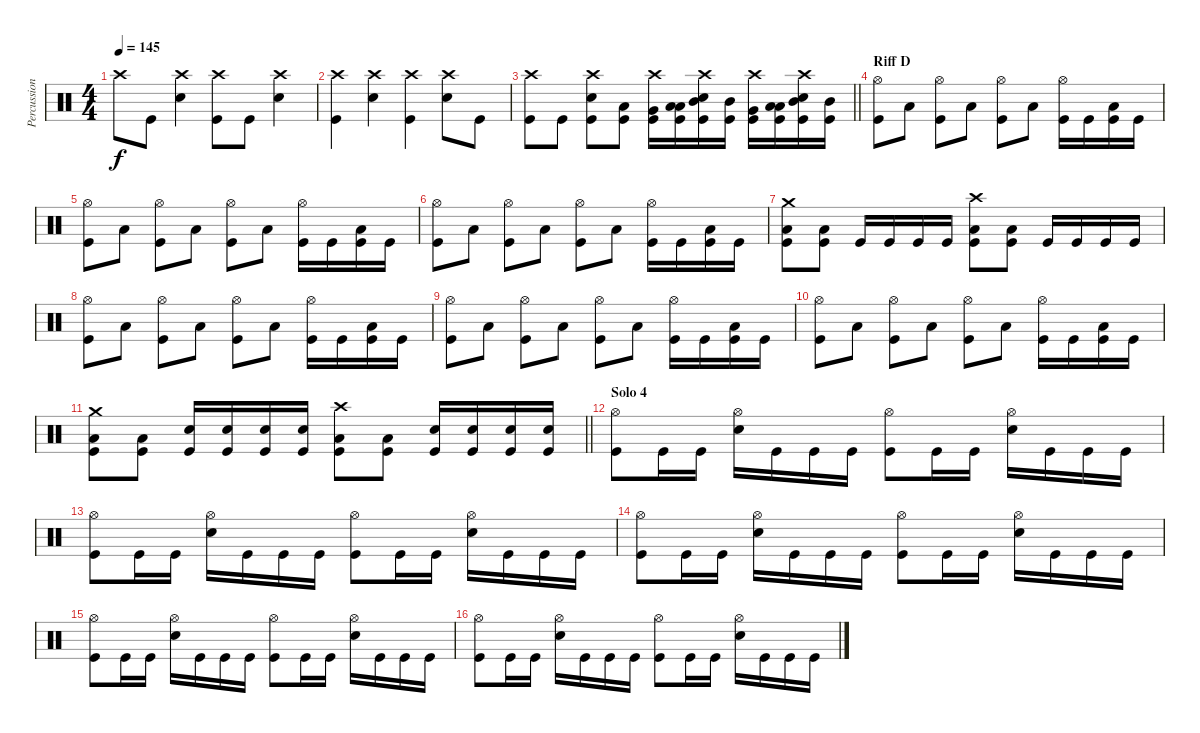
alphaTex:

\track ("Percussion" "Percussion") {instrument percussion}
\staff {score}
\articulation defaults
\ts (4 4)
\tempo 145
\clef neutral
\ks c "Crash high (hit)".8{dy f} "Kick (hit)".8
("Crash high (hit)" "Snare (hit) 2").4 ("Crash high (hit)" "Kick (hit)").8 "Kick (hit)".8 ("Crash high (hit)" "Snare (hit) 2").4 |
("Crash high (hit)" "Kick (hit)").4 ("Crash high (hit)" "Snare (hit) 2").4 ("Crash high (hit)" "Kick (hit)").4 ("Crash high (hit)" "Snare (hit) 2").8 "Kick (hit)".8 |
\barLineRight lightlight
("Crash high (hit)" "Kick (hit)").8 "Kick (hit)".8 ("Crash high (hit)" "Snare (hit) 2" "Kick (hit)").8 ("Low Floor Tom (hit)" "Kick (hit)").8 ("Crash high (hit)" "Very Low Tom (hit)" "Kick (hit)").16 ("Low Tom (hit)" "Low Tom (hit)" "Kick (hit)").16 ("Crash high (hit)" "Mid Tom (hit)" "Snare (hit) 2" "Kick (hit)").16 ("Mid Tom (hit)" "Kick (hit)").16 ("Crash high (hit)" "Very Low Tom (hit)" "Kick (hit)").16 ("Low Tom (hit)" "Low Tom (hit)" "Kick (hit)").16 ("Crash high (hit)" "Mid Tom (hit)" "Snare (hit) 2" "Kick (hit)").16 ("Mid Tom (hit)" "Kick (hit)").16 |
\section ("" "Riff D")
("Hi-Hat (open)" "Kick (hit)").8 "Low Floor Tom (hit)".8 ("Hi-Hat (open)" "Kick (hit)").8 "Low Floor Tom (hit)".8 ("Hi-Hat (open)" "Kick (hit)").8 "Low Floor Tom (hit)".8 ("Hi-Hat (open)" "Kick (hit)").16 "Kick (hit)".16 ("Low Floor Tom (hit)" "Kick (hit)").16 "Kick (hit)".16 |
("Hi-Hat (open)" "Kick (hit)").8 "Low Floor Tom (hit)".8 ("Hi-Hat (open)" "Kick (hit)").8 "Low Floor Tom (hit)".8 ("Hi-Hat (open)" "Kick (hit)").8 "Low Floor Tom (hit)".8 ("Hi-Hat (open)" "Kick (hit)").16 "Kick (hit)".16 ("Low Floor Tom (hit)" "Kick (hit)").16 "Kick (hit)".16 |
("Hi-Hat (open)" "Kick (hit)").8 "Low Floor Tom (hit)".8 ("Hi-Hat (open)" "Kick (hit)").8 "Low Floor Tom (hit)".8 ("Hi-Hat (open)" "Kick (hit)").8 "Low Floor Tom (hit)".8 ("Hi-Hat (open)" "Kick (hit)").16 "Kick (hit)".16 ("Low Floor Tom (hit)" "Kick (hit)").16 "Kick (hit)".16 |
("Crash medium (hit)" "Low Floor Tom (hit)" "Kick (hit)").8 ("Low Floor Tom (hit)" "Kick (hit)").8 "Kick (hit)".16 "Kick (hit)".16 "Kick (hit)".16 "Kick (hit)".16 ("Crash high (hit)" "Low Floor Tom (hit)" "Kick (hit)").8 ("Low Floor Tom (hit)" "Kick (hit)").8 "Kick (hit)".16 "Kick (hit)".16 "Kick (hit)".16 "Kick (hit)".16 |
("Hi-Hat (open)" "Kick (hit)").8 "Low Floor Tom (hit)".8 ("Hi-Hat (open)" "Kick (hit)").8 "Low Floor Tom (hit)".8 ("Hi-Hat (open)" "Kick (hit)").8 "Low Floor Tom (hit)".8 ("Hi-Hat (open)" "Kick (hit)").16 "Kick (hit)".16 ("Low Floor Tom (hit)" "Kick (hit)").16 "Kick (hit)".16 |
("Hi-Hat (open)" "Kick (hit)").8 "Low Floor Tom (hit)".8 ("Hi-Hat (open)" "Kick (hit)").8 "Low Floor Tom (hit)".8 ("Hi-Hat (open)" "Kick (hit)").8 "Low Floor Tom (hit)".8 ("Hi-Hat (open)" "Kick (hit)").16 "Kick (hit)".16 ("Low Floor Tom (hit)" "Kick (hit)").16 "Kick (hit)".16 |
("Hi-Hat (open)" "Kick (hit)").8 "Low Floor Tom (hit)".8 ("Hi-Hat (open)" "Kick (hit)").8 "Low Floor Tom (hit)".8 ("Hi-Hat (open)" "Kick (hit)").8 "Low Floor Tom (hit)".8 ("Hi-Hat (open)" "Kick (hit)").16 "Kick (hit)".16 ("Low Floor Tom (hit)" "Kick (hit)").16 "Kick (hit)".16 |
\barLineRight lightlight
("Crash medium (hit)" "Low Floor Tom (hit)" "Kick (hit)").8 ("Low Floor Tom (hit)" "Kick (hit)").8 ("Snare (hit) 2" "Kick (hit)").16 ("Snare (hit) 2" "Kick (hit)").16 ("Snare (hit) 2" "Kick (hit)").16 ("Snare (hit) 2" "Kick (hit)").16 ("Crash high (hit)" "Low Floor Tom (hit)" "Kick (hit)").8 ("Low Floor Tom (hit)" "Kick (hit)").8 ("Snare (hit) 2" "Kick (hit)").16 ("Snare (hit) 2" "Kick (hit)").16 ("Snare (hit) 2" "Kick (hit)").16 ("Snare (hit) 2" "Kick (hit)").16 |
\section ("" "Solo 4")
("Hi-Hat (open)" "Kick (hit)").8 "Kick (hit)".16 "Kick (hit)".16 ("Hi-Hat (open)" "Snare (hit) 2").16 "Kick (hit)".16 "Kick (hit)".16 "Kick (hit)".16 ("Hi-Hat (open)" "Kick (hit)").8 "Kick (hit)".16 "Kick (hit)".16 ("Hi-Hat (open)" "Snare (hit) 2").16 "Kick (hit)".16 "Kick (hit)".16 "Kick (hit)".16 |
("Hi-Hat (open)" "Kick (hit)").8 "Kick (hit)".16 "Kick (hit)".16 ("Hi-Hat (open)" "Snare (hit) 2").16 "Kick (hit)".16 "Kick (hit)".16 "Kick (hit)".16 ("Hi-Hat (open)" "Kick (hit)").8 "Kick (hit)".16 "Kick (hit)".16 ("Hi-Hat (open)" "Snare (hit) 2").16 "Kick (hit)".16 "Kick (hit)".16 "Kick (hit)".16 |
("Hi-Hat (open)" "Kick (hit)").8 "Kick (hit)".16 "Kick (hit)".16 ("Hi-Hat (open)" "Snare (hit) 2").16 "Kick (hit)".16 "Kick (hit)".16 "Kick (hit)".16 ("Hi-Hat (open)" "Kick (hit)").8 "Kick (hit)".16 "Kick (hit)".16 ("Hi-Hat (open)" "Snare (hit) 2").16 "Kick (hit)".16 "Kick (hit)".16 "Kick (hit)".16 |
("Hi-Hat (open)" "Kick (hit)").8 "Kick (hit)".16 "Kick (hit)".16 ("Hi-Hat (open)" "Snare (hit) 2").16 "Kick (hit)".16 "Kick (hit)".16 "Kick (hit)".16 ("Hi-Hat (open)" "Kick (hit)").8 "Kick (hit)".16 "Kick (hit)".16 ("Hi-Hat (open)" "Snare (hit) 2").16 "Kick (hit)".16 "Kick (hit)".16 "Kick (hit)".16 |
("Hi-Hat (open)" "Kick (hit)").8 "Kick (hit)".16 "Kick (hit)".16 ("Hi-Hat (open)" "Snare (hit) 2").16 "Kick (hit)".16 "Kick (hit)".16 "Kick (hit)".16 ("Hi-Hat (open)" "Kick (hit)").8 "Kick (hit)".16 "Kick (hit)".16 ("Hi-Hat (open)" "Snare (hit) 2").16 "Kick (hit)".16 "Kick (hit)".16 "Kick (hit)".16
